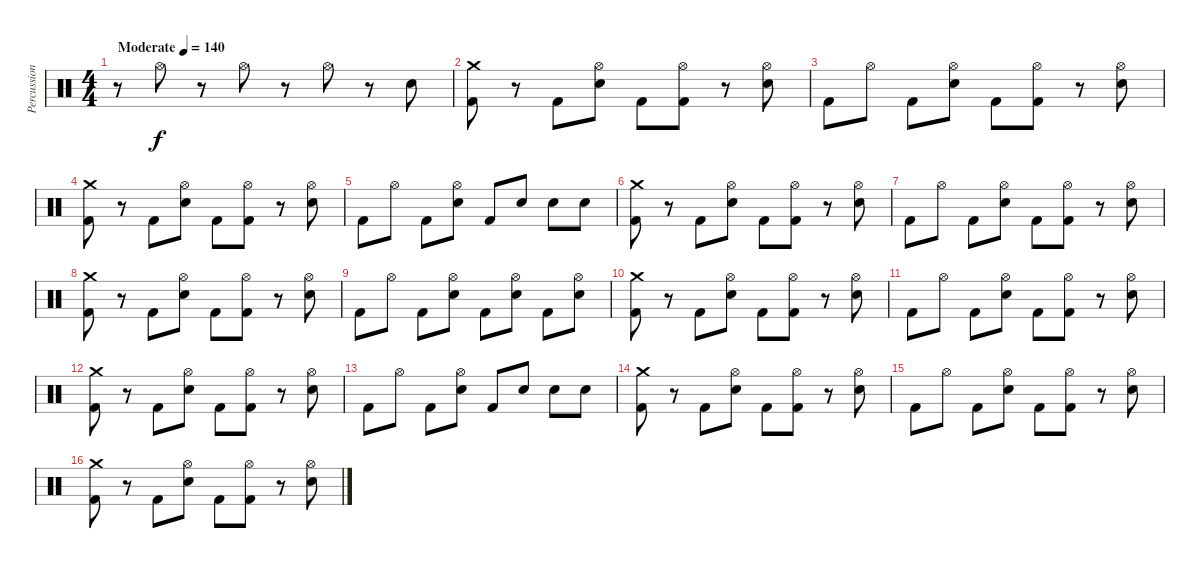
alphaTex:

\track ("Percussion" "Percussion") {instrument percussion}
\staff {score}
\articulation defaults
\ts (4 4)
\tempo (140 "Moderate")
\clef neutral
\ks c
r.8{dy f} "Hi-Hat (open)".8 r.8 "Hi-Hat (open)".8 r.8 "Hi-Hat (open)".8 r.8 "Electric Snare (hit)".8 |
("Crash medium (hit)" "Kick (hit) 2").8 r.8 "Kick (hit) 2".8 ("Hi-Hat (open)" "Electric Snare (hit)").8 "Kick (hit) 2".8 ("Hi-Hat (open)" "Kick (hit) 2").8 r.8 ("Hi-Hat (open)" "Electric Snare (hit)").8 |
"Kick (hit) 2".8 "Hi-Hat (open)".8 "Kick (hit) 2".8 ("Hi-Hat (open)" "Electric Snare (hit)").8 "Kick (hit) 2".8 ("Hi-Hat (open)" "Kick (hit) 2").8 r.8 ("Hi-Hat (open)" "Electric Snare (hit)").8 |
("Crash medium (hit)" "Kick (hit) 2").8 r.8 "Kick (hit) 2".8 ("Hi-Hat (open)" "Electric Snare (hit)").8 "Kick (hit) 2".8 ("Hi-Hat (open)" "Kick (hit) 2").8 r.8 ("Hi-Hat (open)" "Electric Snare (hit)").8 |
"Kick (hit) 2".8 "Hi-Hat (open)".8 "Kick (hit) 2".8 ("Hi-Hat (open)" "Electric Snare (hit)").8 "Kick (hit) 2".8 "Electric Snare (hit)".8 "Electric Snare (hit)".8 "Electric Snare (hit)".8 |
("Crash medium (hit)" "Kick (hit) 2").8 r.8 "Kick (hit) 2".8 ("Hi-Hat (open)" "Electric Snare (hit)").8 "Kick (hit) 2".8 ("Hi-Hat (open)" "Kick (hit) 2").8 r.8 ("Hi-Hat (open)" "Electric Snare (hit)").8 |
"Kick (hit) 2".8 "Hi-Hat (open)".8 "Kick (hit) 2".8 ("Hi-Hat (open)" "Electric Snare (hit)").8 "Kick (hit) 2".8 ("Hi-Hat (open)" "Kick (hit) 2").8 r.8 ("Hi-Hat (open)" "Electric Snare (hit)").8 |
("Crash medium (hit)" "Kick (hit) 2").8 r.8 "Kick (hit) 2".8 ("Hi-Hat (open)" "Electric Snare (hit)").8 "Kick (hit) 2".8 ("Hi-Hat (open)" "Kick (hit) 2").8 r.8 ("Hi-Hat (open)" "Electric Snare (hit)").8 |
"Kick (hit) 2".8 "Hi-Hat (open)".8 "Kick (hit) 2".8 ("Hi-Hat (open)" "Electric Snare (hit)").8 "Kick (hit) 2".8 ("Hi-Hat (open)" "Electric Snare (hit)").8 "Kick (hit) 2".8 ("Hi-Hat (open)" "Electric Snare (hit)").8 |
("Crash medium (hit)" "Kick (hit) 2").8 r.8 "Kick (hit) 2".8 ("Hi-Hat (open)" "Electric Snare (hit)").8 "Kick (hit) 2".8 ("Hi-Hat (open)" "Kick (hit) 2").8 r.8 ("Hi-Hat (open)" "Electric Snare (hit)").8 |
"Kick (hit) 2".8 "Hi-Hat (open)".8 "Kick (hit) 2".8 ("Hi-Hat (open)" "Electric Snare (hit)").8 "Kick (hit) 2".8 ("Hi-Hat (open)" "Kick (hit) 2").8 r.8 ("Hi-Hat (open)" "Electric Snare (hit)").8 |
("Crash medium (hit)" "Kick (hit) 2").8 r.8 "Kick (hit) 2".8 ("Hi-Hat (open)" "Electric Snare (hit)").8 "Kick (hit) 2".8 ("Hi-Hat (open)" "Kick (hit) 2").8 r.8 ("Hi-Hat (open)" "Electric Snare (hit)").8 |
"Kick (hit) 2".8 "Hi-Hat (open)".8 "Kick (hit) 2".8 ("Hi-Hat (open)" "Electric Snare (hit)").8 "Kick (hit) 2".8 "Electric Snare (hit)".8 "Electric Snare (hit)".8 "Electric Snare (hit)".8 |
("Crash medium (hit)" "Kick (hit) 2").8 r.8 "Kick (hit) 2".8 ("Hi-Hat (open)" "Electric Snare (hit)").8 "Kick (hit) 2".8 ("Hi-Hat (open)" "Kick (hit) 2").8 r.8 ("Hi-Hat (open)" "Electric Snare (hit)").8 |
"Kick (hit) 2".8 "Hi-Hat (open)".8 "Kick (hit) 2".8 ("Hi-Hat (open)" "Electric Snare (hit)").8 "Kick (hit) 2".8 ("Hi-Hat (open)" "Kick (hit) 2").8 r.8 ("Hi-Hat (open)" "Electric Snare (hit)").8 |
("Crash medium (hit)" "Kick (hit) 2").8 r.8 "Kick (hit) 2".8 ("Hi-Hat (open)" "Electric Snare (hit)").8 "Kick (hit) 2".8 ("Hi-Hat (open)" "Kick (hit) 2").8 r.8 ("Hi-Hat (open)" "Electric Snare (hit)").8
